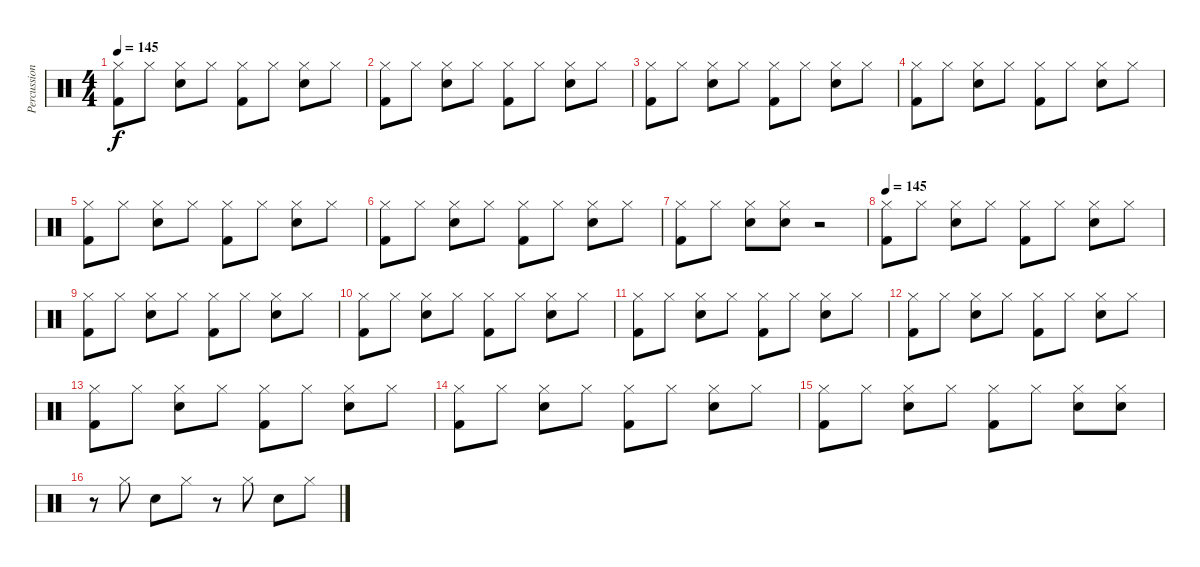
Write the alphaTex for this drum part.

\track ("Percussion (Other)" "Percussion") {instrument percussion}
\staff {score}
\articulation defaults
\ts (4 4)
\tempo 145
\clef neutral
\ks c
("Hi-Hat (closed)" "Kick (hit) 2").8{dy f} "Hi-Hat (closed)".8 ("Hi-Hat (closed)" "Snare (hit) 2").8 "Hi-Hat (closed)".8 ("Hi-Hat (closed)" "Kick (hit) 2").8 "Hi-Hat (closed)".8 ("Hi-Hat (closed)" "Snare (hit) 2").8 "Hi-Hat (closed)".8 |
("Hi-Hat (closed)" "Kick (hit) 2").8 "Hi-Hat (closed)".8 ("Hi-Hat (closed)" "Snare (hit) 2").8 "Hi-Hat (closed)".8 ("Hi-Hat (closed)" "Kick (hit) 2").8 "Hi-Hat (closed)".8 ("Hi-Hat (closed)" "Snare (hit) 2").8 "Hi-Hat (closed)".8 |
("Hi-Hat (closed)" "Kick (hit) 2").8 "Hi-Hat (closed)".8 ("Hi-Hat (closed)" "Snare (hit) 2").8 "Hi-Hat (closed)".8 ("Hi-Hat (closed)" "Kick (hit) 2").8 "Hi-Hat (closed)".8 ("Hi-Hat (closed)" "Snare (hit) 2").8 "Hi-Hat (closed)".8 |
("Hi-Hat (closed)" "Kick (hit) 2").8 "Hi-Hat (closed)".8 ("Hi-Hat (closed)" "Snare (hit) 2").8 "Hi-Hat (closed)".8 ("Hi-Hat (closed)" "Kick (hit) 2").8 "Hi-Hat (closed)".8 ("Hi-Hat (closed)" "Snare (hit) 2").8 "Hi-Hat (closed)".8 |
("Hi-Hat (closed)" "Kick (hit) 2").8 "Hi-Hat (closed)".8 ("Hi-Hat (closed)" "Snare (hit) 2").8 "Hi-Hat (closed)".8 ("Hi-Hat (closed)" "Kick (hit) 2").8 "Hi-Hat (closed)".8 ("Hi-Hat (closed)" "Snare (hit) 2").8 "Hi-Hat (closed)".8 |
("Hi-Hat (closed)" "Kick (hit) 2").8 "Hi-Hat (closed)".8 ("Hi-Hat (closed)" "Snare (hit) 2").8 "Hi-Hat (closed)".8 ("Hi-Hat (closed)" "Kick (hit) 2").8 "Hi-Hat (closed)".8 ("Hi-Hat (closed)" "Snare (hit) 2").8 "Hi-Hat (closed)".8 |
("Hi-Hat (closed)" "Kick (hit) 2").8 "Hi-Hat (closed)".8 ("Hi-Hat (closed)" "Snare (hit) 2").8 ("Hi-Hat (closed)" "Snare (hit) 2").8 r.2 |
\tempo 145
("Hi-Hat (closed)" "Kick (hit) 2").8 "Hi-Hat (closed)".8 ("Hi-Hat (closed)" "Snare (hit) 2").8 "Hi-Hat (closed)".8 ("Hi-Hat (closed)" "Kick (hit) 2").8 "Hi-Hat (closed)".8 ("Hi-Hat (closed)" "Snare (hit) 2").8 "Hi-Hat (closed)".8 |
("Hi-Hat (closed)" "Kick (hit) 2").8 "Hi-Hat (closed)".8 ("Hi-Hat (closed)" "Snare (hit) 2").8 "Hi-Hat (closed)".8 ("Hi-Hat (closed)" "Kick (hit) 2").8 "Hi-Hat (closed)".8 ("Hi-Hat (closed)" "Snare (hit) 2").8 "Hi-Hat (closed)".8 |
("Hi-Hat (closed)" "Kick (hit) 2").8 "Hi-Hat (closed)".8 ("Hi-Hat (closed)" "Snare (hit) 2").8 "Hi-Hat (closed)".8 ("Hi-Hat (closed)" "Kick (hit) 2").8 "Hi-Hat (closed)".8 ("Hi-Hat (closed)" "Snare (hit) 2").8 "Hi-Hat (closed)".8 |
("Hi-Hat (closed)" "Kick (hit) 2").8 "Hi-Hat (closed)".8 ("Hi-Hat (closed)" "Snare (hit) 2").8 "Hi-Hat (closed)".8 ("Hi-Hat (closed)" "Kick (hit) 2").8 "Hi-Hat (closed)".8 ("Hi-Hat (closed)" "Snare (hit) 2").8 "Hi-Hat (closed)".8 |
("Hi-Hat (closed)" "Kick (hit) 2").8 "Hi-Hat (closed)".8 ("Hi-Hat (closed)" "Snare (hit) 2").8 "Hi-Hat (closed)".8 ("Hi-Hat (closed)" "Kick (hit) 2").8 "Hi-Hat (closed)".8 ("Hi-Hat (closed)" "Snare (hit) 2").8 "Hi-Hat (closed)".8 |
("Hi-Hat (closed)" "Kick (hit) 2").8 "Hi-Hat (closed)".8 ("Hi-Hat (closed)" "Snare (hit) 2").8 "Hi-Hat (closed)".8 ("Hi-Hat (closed)" "Kick (hit) 2").8 "Hi-Hat (closed)".8 ("Hi-Hat (closed)" "Snare (hit) 2").8 "Hi-Hat (closed)".8 |
("Hi-Hat (closed)" "Kick (hit) 2").8 "Hi-Hat (closed)".8 ("Hi-Hat (closed)" "Snare (hit) 2").8 "Hi-Hat (closed)".8 ("Hi-Hat (closed)" "Kick (hit) 2").8 "Hi-Hat (closed)".8 ("Hi-Hat (closed)" "Snare (hit) 2").8 "Hi-Hat (closed)".8 |
("Hi-Hat (closed)" "Kick (hit) 2").8 "Hi-Hat (closed)".8 ("Hi-Hat (closed)" "Snare (hit) 2").8 "Hi-Hat (closed)".8 ("Hi-Hat (closed)" "Kick (hit) 2").8 "Hi-Hat (closed)".8 ("Hi-Hat (closed)" "Snare (hit) 2").8 ("Hi-Hat (closed)" "Snare (hit) 2").8 |
r.8 "Hi-Hat (closed)".8 "Snare (hit) 2".8 "Hi-Hat (closed)".8 r.8 "Hi-Hat (closed)".8 "Snare (hit) 2".8 "Hi-Hat (closed)".8
